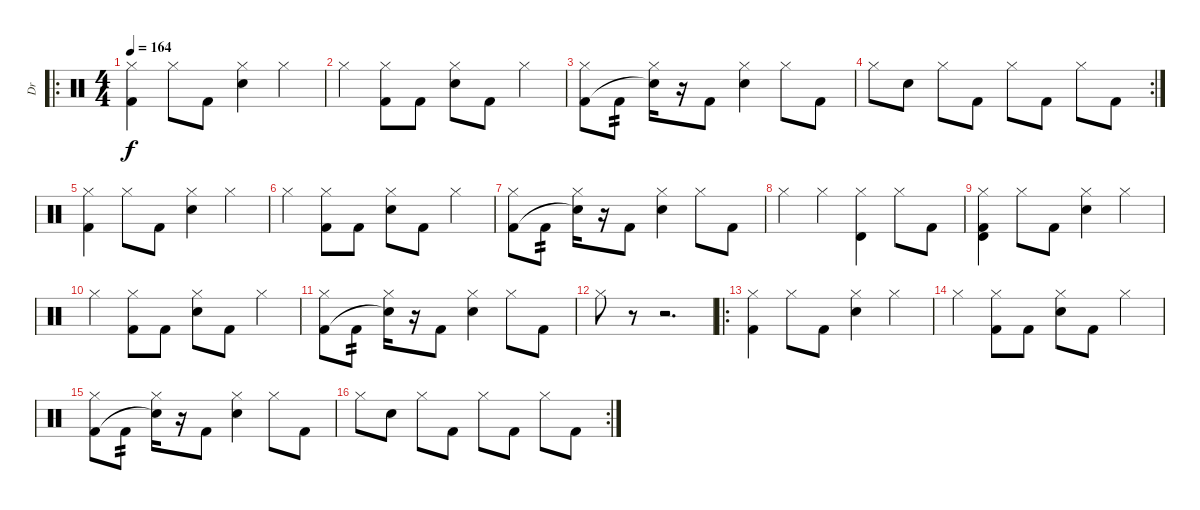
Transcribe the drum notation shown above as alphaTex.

\track ("Dr" "Dr") {instrument percussion}
\staff {score}
\articulation defaults
\ro
\ts (4 4)
\tempo 164
\clef neutral
\ks c
("Hi-Hat (closed)" "Kick (hit) 2").4{dy f} "Hi-Hat (closed)".8 "Kick (hit) 2".8 ("Hi-Hat (closed)" "Electric Snare (hit)").4 "Hi-Hat (closed)".4 |
"Hi-Hat (closed)".4 ("Hi-Hat (closed)" "Kick (hit) 2").8 "Kick (hit) 2".8 ("Hi-Hat (closed)" "Electric Snare (hit)").8 "Kick (hit) 2".8 "Hi-Hat (closed)".4 |
("Hi-Hat (closed)" "Kick (hit) 2").8 "Kick (hit) 2".8{tp 2} ("Hi-Hat (closed)" "Snare (hit)"{t}).16 r.16 "Kick (hit) 2".8 ("Hi-Hat (closed)" "Electric Snare (hit)").4 "Hi-Hat (closed)".8 "Kick (hit) 2".8 |
\rc 2 "Hi-Hat (closed)".8 "Electric Snare (hit)".8 "Hi-Hat (closed)".8 "Kick (hit) 2".8 "Hi-Hat (closed)".8 "Kick (hit) 2".8 "Hi-Hat (closed)".8 "Kick (hit) 2".8
|
("Hi-Hat (closed)" "Kick (hit) 2").4 "Hi-Hat (closed)".8 "Kick (hit) 2".8 ("Hi-Hat (closed)" "Electric Snare (hit)").4 "Hi-Hat (closed)".4 |
"Hi-Hat (closed)".4 ("Hi-Hat (closed)" "Kick (hit) 2").8 "Kick (hit) 2".8 ("Hi-Hat (closed)" "Electric Snare (hit)").8 "Kick (hit) 2".8 "Hi-Hat (closed)".4 |
("Hi-Hat (closed)" "Kick (hit) 2").8 "Kick (hit) 2".8{tp 2} ("Hi-Hat (closed)" "Snare (hit)"{t}).16 r.16 "Kick (hit) 2".8 ("Hi-Hat (closed)" "Electric Snare (hit)").4 "Hi-Hat (closed)".8 "Kick (hit) 2".8 |
"Hi-Hat (closed)".4 "Hi-Hat (closed)".4 ("Hi-Hat (closed)" "Timbale high (hit)").4 "Hi-Hat (closed)".8 "Kick (hit) 2".8 |
("Hi-Hat (closed)" "Timbale high (hit)" "Kick (hit) 2").4 "Hi-Hat (closed)".8 "Kick (hit) 2".8 ("Hi-Hat (closed)" "Electric Snare (hit)").4 "Hi-Hat (closed)".4 |
"Hi-Hat (closed)".4 ("Hi-Hat (closed)" "Kick (hit) 2").8 "Kick (hit) 2".8 ("Hi-Hat (closed)" "Electric Snare (hit)").8 "Kick (hit) 2".8 "Hi-Hat (closed)".4 |
("Hi-Hat (closed)" "Kick (hit) 2").8 "Kick (hit) 2".8{tp 2} ("Hi-Hat (closed)" "Snare (hit)"{t}).16 r.16 "Kick (hit) 2".8 ("Hi-Hat (closed)" "Electric Snare (hit)").4 "Hi-Hat (closed)".8 "Kick (hit) 2".8 |
"Hi-Hat (closed)".8 r.8 r.2{d} |
\ro
("Hi-Hat (closed)" "Kick (hit) 2").4 "Hi-Hat (closed)".8 "Kick (hit) 2".8 ("Hi-Hat (closed)" "Electric Snare (hit)").4 "Hi-Hat (closed)".4 |
"Hi-Hat (closed)".4 ("Hi-Hat (closed)" "Kick (hit) 2").8 "Kick (hit) 2".8 ("Hi-Hat (closed)" "Electric Snare (hit)").8 "Kick (hit) 2".8 "Hi-Hat (closed)".4 |
("Hi-Hat (closed)" "Kick (hit) 2").8 "Kick (hit) 2".8{tp 2} ("Hi-Hat (closed)" "Snare (hit)"{t}).16 r.16 "Kick (hit) 2".8 ("Hi-Hat (closed)" "Electric Snare (hit)").4 "Hi-Hat (closed)".8 "Kick (hit) 2".8 |
\rc 2 "Hi-Hat (closed)".8 "Electric Snare (hit)".8 "Hi-Hat (closed)".8 "Kick (hit) 2".8 "Hi-Hat (closed)".8 "Kick (hit) 2".8 "Hi-Hat (closed)".8 "Kick (hit) 2".8
